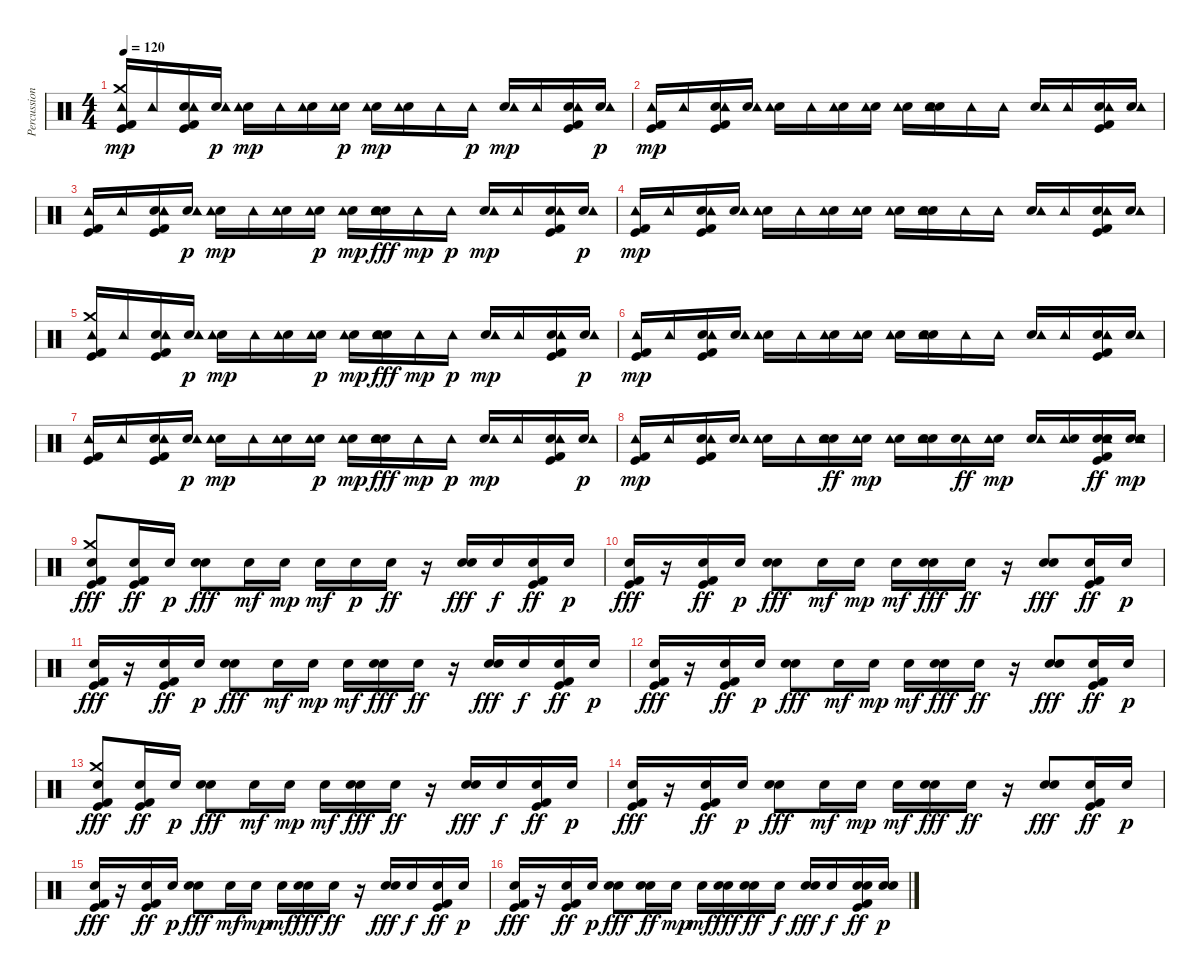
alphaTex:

\track ("Percussions" "Percussion") {instrument percussion}
\staff {score}
\articulation defaults
\ts (4 4)
\tempo 120
\clef neutral
\ks c
("Kick (hit) 2" "Kick (hit)" "Crash medium (hit)" "Tambourine (hit)").16{dy mp} "Tambourine (hit)".16 ("Electric Snare (hit)" "Kick (hit) 2" "Kick (hit)" "Tambourine (hit)").16 ("Electric Snare (hit)" "Tambourine (hit)").16{dy p} ("Snare (hit) 2" "Tambourine (hit)").16{dy mp} "Tambourine (hit)".16 ("Electric Snare (hit)" "Tambourine (hit)").16 ("Electric Snare (hit)" "Tambourine (hit)").16{dy p} ("Electric Snare (hit)" "Tambourine (hit)").16{dy mp} ("Electric Snare (hit)" "Tambourine (hit)").16 "Tambourine (hit)".16 "Tambourine (hit)".16{dy p} ("Snare (hit) 2" "Tambourine (hit)").16{dy mp} "Tambourine (hit)".16 ("Electric Snare (hit)" "Kick (hit) 2" "Kick (hit)" "Tambourine (hit)").16 ("Electric Snare (hit)" "Tambourine (hit)").16{dy p} |
("Kick (hit) 2" "Kick (hit)" "Tambourine (hit)").16{dy mp} "Tambourine (hit)".16 ("Electric Snare (hit)" "Kick (hit) 2" "Kick (hit)" "Tambourine (hit)").16 ("Electric Snare (hit)" "Tambourine (hit)").16 ("Snare (hit) 2" "Tambourine (hit)").16 "Tambourine (hit)".16 ("Electric Snare (hit)" "Tambourine (hit)").16 ("Electric Snare (hit)" "Tambourine (hit)").16 ("Electric Snare (hit)" "Tambourine (hit)").16 ("Electric Snare (hit)" "Snare (hit) 2" "Tambourine (hit)").16 "Tambourine (hit)".16 "Tambourine (hit)".16 ("Snare (hit) 2" "Tambourine (hit)").16 "Tambourine (hit)".16 ("Electric Snare (hit)" "Kick (hit) 2" "Kick (hit)" "Tambourine (hit)").16 ("Electric Snare (hit)" "Tambourine (hit)").16 |
("Kick (hit) 2" "Kick (hit)" "Tambourine (hit)").16 "Tambourine (hit)".16 ("Electric Snare (hit)" "Kick (hit) 2" "Kick (hit)" "Tambourine (hit)").16 ("Electric Snare (hit)" "Tambourine (hit)").16{dy p} ("Snare (hit) 2" "Tambourine (hit)").16{dy mp} "Tambourine (hit)".16 ("Electric Snare (hit)" "Tambourine (hit)").16 ("Electric Snare (hit)" "Tambourine (hit)").16{dy p} ("Electric Snare (hit)" "Tambourine (hit)").16{dy mp} ("Electric Snare (hit)" "Tambourine (hit)" "Snare (hit) 2").16{dy fff} "Tambourine (hit)".16{dy mp} "Tambourine (hit)".16{dy p} ("Snare (hit) 2" "Tambourine (hit)").16{dy mp} "Tambourine (hit)".16 ("Electric Snare (hit)" "Kick (hit) 2" "Kick (hit)" "Tambourine (hit)").16 ("Electric Snare (hit)" "Tambourine (hit)").16{dy p} |
("Kick (hit) 2" "Kick (hit)" "Tambourine (hit)").16{dy mp} "Tambourine (hit)".16 ("Electric Snare (hit)" "Kick (hit) 2" "Kick (hit)" "Tambourine (hit)").16 ("Electric Snare (hit)" "Tambourine (hit)").16 ("Snare (hit) 2" "Tambourine (hit)").16 "Tambourine (hit)".16 ("Electric Snare (hit)" "Tambourine (hit)").16 ("Electric Snare (hit)" "Tambourine (hit)").16 ("Electric Snare (hit)" "Tambourine (hit)").16 ("Electric Snare (hit)" "Snare (hit) 2" "Tambourine (hit)").16 "Tambourine (hit)".16 "Tambourine (hit)".16 ("Snare (hit) 2" "Tambourine (hit)").16 "Tambourine (hit)".16 ("Electric Snare (hit)" "Kick (hit) 2" "Kick (hit)" "Tambourine (hit)").16 ("Electric Snare (hit)" "Tambourine (hit)").16 |
("Kick (hit) 2" "Kick (hit)" "Crash medium (hit)" "Tambourine (hit)").16 "Tambourine (hit)".16 ("Electric Snare (hit)" "Kick (hit) 2" "Kick (hit)" "Tambourine (hit)").16 ("Electric Snare (hit)" "Tambourine (hit)").16{dy p} ("Snare (hit) 2" "Tambourine (hit)").16{dy mp} "Tambourine (hit)".16 ("Electric Snare (hit)" "Tambourine (hit)").16 ("Electric Snare (hit)" "Tambourine (hit)").16{dy p} ("Electric Snare (hit)" "Tambourine (hit)").16{dy mp} ("Electric Snare (hit)" "Tambourine (hit)" "Snare (hit) 2").16{dy fff} "Tambourine (hit)".16{dy mp} "Tambourine (hit)".16{dy p} ("Snare (hit) 2" "Tambourine (hit)").16{dy mp} "Tambourine (hit)".16 ("Electric Snare (hit)" "Kick (hit) 2" "Kick (hit)" "Tambourine (hit)").16 ("Electric Snare (hit)" "Tambourine (hit)").16{dy p} |
("Kick (hit) 2" "Kick (hit)" "Tambourine (hit)").16{dy mp} "Tambourine (hit)".16 ("Electric Snare (hit)" "Kick (hit) 2" "Kick (hit)" "Tambourine (hit)").16 ("Electric Snare (hit)" "Tambourine (hit)").16 ("Snare (hit) 2" "Tambourine (hit)").16 "Tambourine (hit)".16 ("Electric Snare (hit)" "Tambourine (hit)").16 ("Electric Snare (hit)" "Tambourine (hit)").16 ("Electric Snare (hit)" "Tambourine (hit)").16 ("Electric Snare (hit)" "Snare (hit) 2" "Tambourine (hit)").16 "Tambourine (hit)".16 "Tambourine (hit)".16 ("Snare (hit) 2" "Tambourine (hit)").16 "Tambourine (hit)".16 ("Electric Snare (hit)" "Kick (hit) 2" "Kick (hit)" "Tambourine (hit)").16 ("Electric Snare (hit)" "Tambourine (hit)").16 |
("Kick (hit) 2" "Kick (hit)" "Tambourine (hit)").16 "Tambourine (hit)".16 ("Electric Snare (hit)" "Kick (hit) 2" "Kick (hit)" "Tambourine (hit)").16 ("Electric Snare (hit)" "Tambourine (hit)").16{dy p} ("Snare (hit) 2" "Tambourine (hit)").16{dy mp} "Tambourine (hit)".16 ("Electric Snare (hit)" "Tambourine (hit)").16 ("Electric Snare (hit)" "Tambourine (hit)").16{dy p} ("Electric Snare (hit)" "Tambourine (hit)").16{dy mp} ("Electric Snare (hit)" "Tambourine (hit)" "Snare (hit) 2").16{dy fff} "Tambourine (hit)".16{dy mp} "Tambourine (hit)".16{dy p} ("Snare (hit) 2" "Tambourine (hit)").16{dy mp} "Tambourine (hit)".16 ("Electric Snare (hit)" "Kick (hit) 2" "Kick (hit)" "Tambourine (hit)").16 ("Electric Snare (hit)" "Tambourine (hit)").16{dy p} |
("Kick (hit) 2" "Kick (hit)" "Tambourine (hit)").16{dy mp} "Tambourine (hit)".16 ("Electric Snare (hit)" "Kick (hit) 2" "Kick (hit)" "Tambourine (hit)").16 ("Electric Snare (hit)" "Tambourine (hit)").16 ("Snare (hit) 2" "Tambourine (hit)").16 "Tambourine (hit)".16 ("Electric Snare (hit)" "Tambourine (hit)" "Snare (hit) 2").16{dy ff} ("Electric Snare (hit)" "Tambourine (hit)").16{dy mp} ("Electric Snare (hit)" "Tambourine (hit)").16 ("Electric Snare (hit)" "Snare (hit) 2" "Tambourine (hit)").16 ("Tambourine (hit)" "Snare (hit) 2").16{dy ff} ("Snare (hit) 2" "Tambourine (hit)").16{dy mp} ("Snare (hit) 2" "Tambourine (hit)").16 ("Tambourine (hit)" "Snare (hit) 2").16 ("Electric Snare (hit)" "Kick (hit) 2" "Kick (hit)" "Tambourine (hit)" "Snare (hit) 2").16{dy ff} ("Snare (hit) 2" "Electric Snare (hit)" "Tambourine (hit)").16{dy mp} |
("Electric Snare (hit)" "Kick (hit) 2" "Kick (hit)" "Crash medium (hit)").8{dy fff volume 14} ("Electric Snare (hit)" "Kick (hit) 2" "Kick (hit)").16{dy ff} "Electric Snare (hit)".16{dy p} ("Snare (hit) 2" "Electric Snare (hit)").8{dy fff} "Electric Snare (hit)".16{dy mf} "Electric Snare (hit)".16{dy mp} "Electric Snare (hit)".16{dy mf} "Electric Snare (hit)".16{dy p} "Electric Snare (hit)".16{dy ff} r.16 ("Snare (hit) 2" "Electric Snare (hit)").16{dy fff} "Electric Snare (hit)".16{dy f} ("Electric Snare (hit)" "Kick (hit) 2" "Kick (hit)").16{dy ff} "Electric Snare (hit)".16{dy p} |
("Electric Snare (hit)" "Kick (hit) 2" "Kick (hit)").16{dy fff} r.16 ("Electric Snare (hit)" "Kick (hit) 2" "Kick (hit)").16{dy ff} "Electric Snare (hit)".16{dy p} ("Snare (hit) 2" "Electric Snare (hit)").8{dy fff} "Electric Snare (hit)".16{dy mf} "Electric Snare (hit)".16{dy mp} "Electric Snare (hit)".16{dy mf} ("Electric Snare (hit)" "Snare (hit) 2").16{dy fff} "Electric Snare (hit)".16{dy ff} r.16 ("Electric Snare (hit)" "Snare (hit) 2").8{dy fff} ("Electric Snare (hit)" "Kick (hit) 2" "Kick (hit)").16{dy ff} "Electric Snare (hit)".16{dy p} |
("Electric Snare (hit)" "Kick (hit) 2" "Kick (hit)").16{dy fff} r.16 ("Electric Snare (hit)" "Kick (hit) 2" "Kick (hit)").16{dy ff} "Electric Snare (hit)".16{dy p} ("Snare (hit) 2" "Electric Snare (hit)").8{dy fff} "Electric Snare (hit)".16{dy mf} "Electric Snare (hit)".16{dy mp} "Electric Snare (hit)".16{dy mf} ("Electric Snare (hit)" "Snare (hit) 2").16{dy fff} "Electric Snare (hit)".16{dy ff} r.16 ("Snare (hit) 2" "Electric Snare (hit)").16{dy fff} "Electric Snare (hit)".16{dy f} ("Electric Snare (hit)" "Kick (hit) 2" "Kick (hit)").16{dy ff} "Electric Snare (hit)".16{dy p} |
("Electric Snare (hit)" "Kick (hit) 2" "Kick (hit)").16{dy fff} r.16 ("Electric Snare (hit)" "Kick (hit) 2" "Kick (hit)").16{dy ff} "Electric Snare (hit)".16{dy p} ("Snare (hit) 2" "Electric Snare (hit)").8{dy fff} "Electric Snare (hit)".16{dy mf} "Electric Snare (hit)".16{dy mp} "Electric Snare (hit)".16{dy mf} ("Electric Snare (hit)" "Snare (hit) 2").16{dy fff} "Electric Snare (hit)".16{dy ff} r.16 ("Electric Snare (hit)" "Snare (hit) 2").8{dy fff} ("Electric Snare (hit)" "Kick (hit) 2" "Kick (hit)").16{dy ff} "Electric Snare (hit)".16{dy p} |
("Electric Snare (hit)" "Kick (hit) 2" "Kick (hit)" "Crash medium (hit)").8{dy fff} ("Electric Snare (hit)" "Kick (hit) 2" "Kick (hit)").16{dy ff} "Electric Snare (hit)".16{dy p} ("Snare (hit) 2" "Electric Snare (hit)").8{dy fff} "Electric Snare (hit)".16{dy mf} "Electric Snare (hit)".16{dy mp} "Electric Snare (hit)".16{dy mf} ("Electric Snare (hit)" "Snare (hit) 2").16{dy fff} "Electric Snare (hit)".16{dy ff} r.16 ("Snare (hit) 2" "Electric Snare (hit)").16{dy fff} "Electric Snare (hit)".16{dy f} ("Electric Snare (hit)" "Kick (hit) 2" "Kick (hit)").16{dy ff} "Electric Snare (hit)".16{dy p} |
("Electric Snare (hit)" "Kick (hit) 2" "Kick (hit)").16{dy fff} r.16 ("Electric Snare (hit)" "Kick (hit) 2" "Kick (hit)").16{dy ff} "Electric Snare (hit)".16{dy p} ("Snare (hit) 2" "Electric Snare (hit)").8{dy fff} "Electric Snare (hit)".16{dy mf} "Electric Snare (hit)".16{dy mp} "Electric Snare (hit)".16{dy mf} ("Electric Snare (hit)" "Snare (hit) 2").16{dy fff} "Electric Snare (hit)".16{dy ff} r.16 ("Electric Snare (hit)" "Snare (hit) 2").8{dy fff} ("Electric Snare (hit)" "Kick (hit) 2" "Kick (hit)").16{dy ff} "Electric Snare (hit)".16{dy p} |
("Electric Snare (hit)" "Kick (hit) 2" "Kick (hit)").16{dy fff} r.16 ("Electric Snare (hit)" "Kick (hit) 2" "Kick (hit)").16{dy ff} "Electric Snare (hit)".16{dy p} ("Snare (hit) 2" "Electric Snare (hit)").8{dy fff} "Electric Snare (hit)".16{dy mf} "Electric Snare (hit)".16{dy mp} "Electric Snare (hit)".16{dy mf} ("Electric Snare (hit)" "Snare (hit) 2").16{dy fff} "Electric Snare (hit)".16{dy ff} r.16 ("Snare (hit) 2" "Electric Snare (hit)").16{dy fff} "Electric Snare (hit)".16{dy f} ("Electric Snare (hit)" "Kick (hit) 2" "Kick (hit)").16{dy ff} "Electric Snare (hit)".16{dy p} |
("Electric Snare (hit)" "Kick (hit) 2" "Kick (hit)").16{dy fff} r.16 ("Electric Snare (hit)" "Kick (hit) 2" "Kick (hit)").16{dy ff} "Electric Snare (hit)".16{dy p} ("Snare (hit) 2" "Electric Snare (hit)").8{dy fff} ("Electric Snare (hit)" "Snare (hit) 2").16{dy ff} "Electric Snare (hit)".16{dy mp} "Electric Snare (hit)".16{dy mf} ("Electric Snare (hit)" "Snare (hit) 2").16{dy fff} ("Electric Snare (hit)" "Snare (hit) 2").16{dy ff} "Snare (hit) 2".16{dy f} ("Electric Snare (hit)" "Snare (hit) 2").16{dy fff} "Snare (hit) 2".16{dy f} ("Electric Snare (hit)" "Kick (hit) 2" "Kick (hit)" "Snare (hit) 2").16{dy ff} ("Electric Snare (hit)" "Snare (hit) 2").16{dy p}
